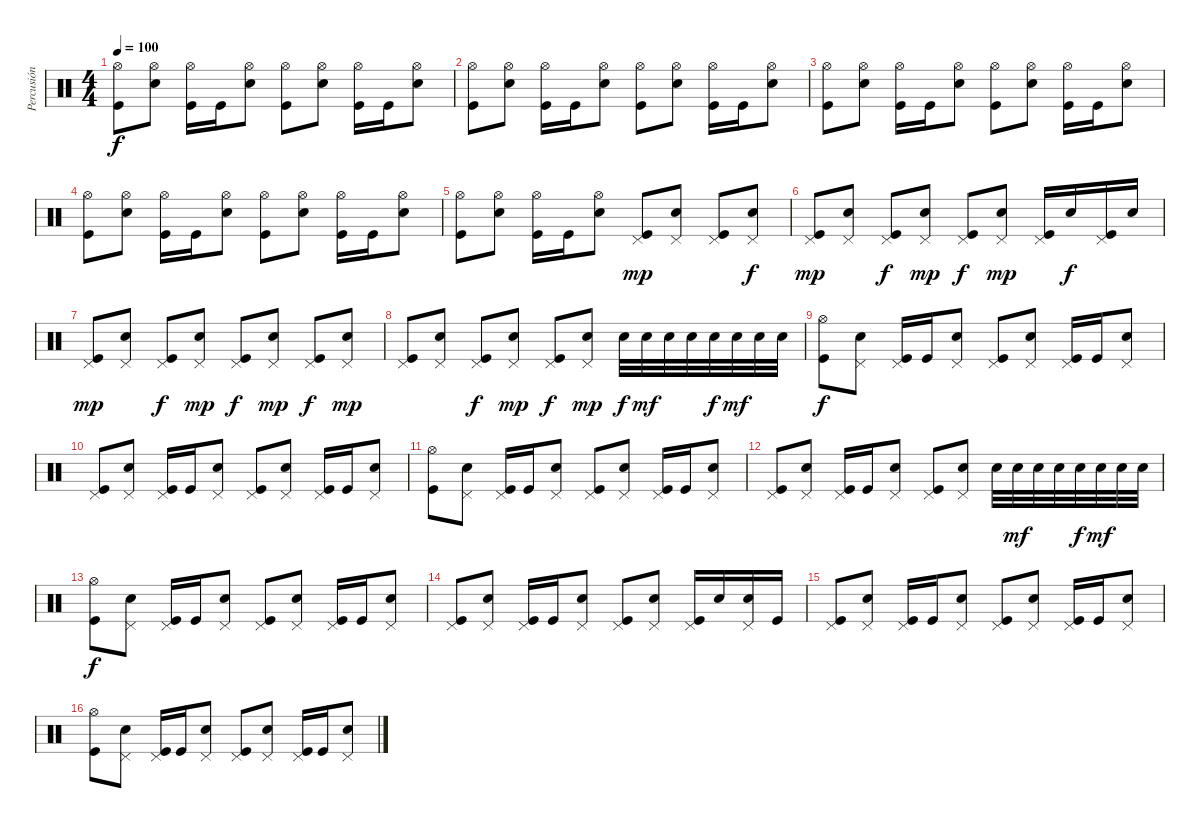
\track ("Percusión" "Percusión") {instrument percussion}
\staff {score}
\articulation defaults
\ts (4 4)
\tempo 100
\clef neutral
\ks c
("Kick (hit)" "Hi-Hat (open)").8{dy f} ("Snare (hit) 2" "Hi-Hat (open)").8 ("Kick (hit)" "Hi-Hat (open)").16 "Kick (hit)".16 ("Snare (hit) 2" "Hi-Hat (open)").8 ("Kick (hit)" "Hi-Hat (open)").8 ("Snare (hit) 2" "Hi-Hat (open)").8 ("Kick (hit)" "Hi-Hat (open)").16 "Kick (hit)".16 ("Snare (hit) 2" "Hi-Hat (open)").8 |
("Kick (hit)" "Hi-Hat (open)").8 ("Snare (hit) 2" "Hi-Hat (open)").8 ("Kick (hit)" "Hi-Hat (open)").16 "Kick (hit)".16 ("Snare (hit) 2" "Hi-Hat (open)").8 ("Kick (hit)" "Hi-Hat (open)").8 ("Snare (hit) 2" "Hi-Hat (open)").8 ("Kick (hit)" "Hi-Hat (open)").16 "Kick (hit)".16 ("Snare (hit) 2" "Hi-Hat (open)").8 |
("Kick (hit)" "Hi-Hat (open)").8 ("Snare (hit) 2" "Hi-Hat (open)").8 ("Kick (hit)" "Hi-Hat (open)").16 "Kick (hit)".16 ("Snare (hit) 2" "Hi-Hat (open)").8 ("Kick (hit)" "Hi-Hat (open)").8 ("Snare (hit) 2" "Hi-Hat (open)").8 ("Kick (hit)" "Hi-Hat (open)").16 "Kick (hit)".16 ("Snare (hit) 2" "Hi-Hat (open)").8 |
("Kick (hit)" "Hi-Hat (open)").8 ("Snare (hit) 2" "Hi-Hat (open)").8 ("Kick (hit)" "Hi-Hat (open)").16 "Kick (hit)".16 ("Snare (hit) 2" "Hi-Hat (open)").8 ("Kick (hit)" "Hi-Hat (open)").8 ("Snare (hit) 2" "Hi-Hat (open)").8 ("Kick (hit)" "Hi-Hat (open)").16 "Kick (hit)".16 ("Snare (hit) 2" "Hi-Hat (open)").8 |
("Kick (hit)" "Hi-Hat (open)").8 ("Snare (hit) 2" "Hi-Hat (open)").8 ("Kick (hit)" "Hi-Hat (open)").16 "Kick (hit)".16 ("Snare (hit) 2" "Hi-Hat (open)").8 ("Pedal Hi-Hat (hit)" "Kick (hit)").8{dy mp} ("Pedal Hi-Hat (hit)" "Snare (hit) 2").8 ("Pedal Hi-Hat (hit)" "Kick (hit)").8 ("Pedal Hi-Hat (hit)" "Snare (hit) 2").8{dy f} |
("Pedal Hi-Hat (hit)" "Kick (hit)").8{dy mp} ("Pedal Hi-Hat (hit)" "Snare (hit) 2").8 ("Pedal Hi-Hat (hit)" "Kick (hit)").8{dy f} ("Pedal Hi-Hat (hit)" "Snare (hit) 2").8{dy mp} ("Pedal Hi-Hat (hit)" "Kick (hit)").8{dy f} ("Pedal Hi-Hat (hit)" "Snare (hit) 2").8{dy mp} ("Pedal Hi-Hat (hit)" "Kick (hit)").16 "Snare (hit) 2".16{dy f} ("Pedal Hi-Hat (hit)" "Kick (hit)").16 "Snare (hit) 2".16 |
("Pedal Hi-Hat (hit)" "Kick (hit)").8{dy mp} ("Pedal Hi-Hat (hit)" "Snare (hit) 2").8 ("Pedal Hi-Hat (hit)" "Kick (hit)").8{dy f} ("Pedal Hi-Hat (hit)" "Snare (hit) 2").8{dy mp} ("Pedal Hi-Hat (hit)" "Kick (hit)").8{dy f} ("Pedal Hi-Hat (hit)" "Snare (hit) 2").8{dy mp} ("Pedal Hi-Hat (hit)" "Kick (hit)").8{dy f} ("Pedal Hi-Hat (hit)" "Snare (hit) 2").8{dy mp} |
("Pedal Hi-Hat (hit)" "Kick (hit)").8 ("Pedal Hi-Hat (hit)" "Snare (hit) 2").8 ("Pedal Hi-Hat (hit)" "Kick (hit)").8{dy f} ("Pedal Hi-Hat (hit)" "Snare (hit) 2").8{dy mp} ("Pedal Hi-Hat (hit)" "Kick (hit)").8{dy f} ("Pedal Hi-Hat (hit)" "Snare (hit) 2").8{dy mp} "Snare (hit) 2".32{dy f} "Snare (hit) 2".32{dy mf} "Snare (hit) 2".32 "Snare (hit) 2".32 "Snare (hit) 2".32{dy f} "Snare (hit) 2".32{dy mf} "Snare (hit) 2".32 "Snare (hit) 2".32 |
("Kick (hit)" "Hi-Hat (open)").8{dy f} ("Pedal Hi-Hat (hit)" "Snare (hit) 2").8 ("Pedal Hi-Hat (hit)" "Kick (hit)").16 "Kick (hit)".16 ("Pedal Hi-Hat (hit)" "Snare (hit) 2").8 ("Pedal Hi-Hat (hit)" "Kick (hit)").8 ("Pedal Hi-Hat (hit)" "Snare (hit) 2").8 ("Pedal Hi-Hat (hit)" "Kick (hit)").16 "Kick (hit)".16 ("Pedal Hi-Hat (hit)" "Snare (hit) 2").8 |
("Pedal Hi-Hat (hit)" "Kick (hit)").8 ("Pedal Hi-Hat (hit)" "Snare (hit) 2").8 ("Pedal Hi-Hat (hit)" "Kick (hit)").16 "Kick (hit)".16 ("Pedal Hi-Hat (hit)" "Snare (hit) 2").8 ("Pedal Hi-Hat (hit)" "Kick (hit)").8 ("Pedal Hi-Hat (hit)" "Snare (hit) 2").8 ("Pedal Hi-Hat (hit)" "Kick (hit)").16 "Kick (hit)".16 ("Pedal Hi-Hat (hit)" "Snare (hit) 2").8 |
("Kick (hit)" "Hi-Hat (open)").8 ("Pedal Hi-Hat (hit)" "Snare (hit) 2").8 ("Pedal Hi-Hat (hit)" "Kick (hit)").16 "Kick (hit)".16 ("Pedal Hi-Hat (hit)" "Snare (hit) 2").8 ("Pedal Hi-Hat (hit)" "Kick (hit)").8 ("Pedal Hi-Hat (hit)" "Snare (hit) 2").8 ("Pedal Hi-Hat (hit)" "Kick (hit)").16 "Kick (hit)".16 ("Pedal Hi-Hat (hit)" "Snare (hit) 2").8 |
("Pedal Hi-Hat (hit)" "Kick (hit)").8 ("Pedal Hi-Hat (hit)" "Snare (hit) 2").8 ("Pedal Hi-Hat (hit)" "Kick (hit)").16 "Kick (hit)".16 ("Pedal Hi-Hat (hit)" "Snare (hit) 2").8 ("Pedal Hi-Hat (hit)" "Kick (hit)").8 ("Pedal Hi-Hat (hit)" "Snare (hit) 2").8 "Snare (hit) 2".32 "Snare (hit) 2".32{dy mf} "Snare (hit) 2".32 "Snare (hit) 2".32 "Snare (hit) 2".32{dy f} "Snare (hit) 2".32{dy mf} "Snare (hit) 2".32 "Snare (hit) 2".32 |
("Kick (hit)" "Hi-Hat (open)").8{dy f} ("Pedal Hi-Hat (hit)" "Snare (hit) 2").8 ("Pedal Hi-Hat (hit)" "Kick (hit)").16 "Kick (hit)".16 ("Pedal Hi-Hat (hit)" "Snare (hit) 2").8 ("Pedal Hi-Hat (hit)" "Kick (hit)").8 ("Pedal Hi-Hat (hit)" "Snare (hit) 2").8 ("Pedal Hi-Hat (hit)" "Kick (hit)").16 "Kick (hit)".16 ("Pedal Hi-Hat (hit)" "Snare (hit) 2").8 |
("Pedal Hi-Hat (hit)" "Kick (hit)").8 ("Pedal Hi-Hat (hit)" "Snare (hit) 2").8 ("Pedal Hi-Hat (hit)" "Kick (hit)").16 "Kick (hit)".16 ("Pedal Hi-Hat (hit)" "Snare (hit) 2").8 ("Pedal Hi-Hat (hit)" "Kick (hit)").8 ("Pedal Hi-Hat (hit)" "Snare (hit) 2").8 ("Pedal Hi-Hat (hit)" "Kick (hit)").16 "Snare (hit) 2".16 ("Pedal Hi-Hat (hit)" "Snare (hit) 2").16 "Kick (hit)".16 |
("Pedal Hi-Hat (hit)" "Kick (hit)").8 ("Pedal Hi-Hat (hit)" "Snare (hit) 2").8 ("Pedal Hi-Hat (hit)" "Kick (hit)").16 "Kick (hit)".16 ("Pedal Hi-Hat (hit)" "Snare (hit) 2").8 ("Pedal Hi-Hat (hit)" "Kick (hit)").8 ("Pedal Hi-Hat (hit)" "Snare (hit) 2").8 ("Pedal Hi-Hat (hit)" "Kick (hit)").16 "Kick (hit)".16 ("Pedal Hi-Hat (hit)" "Snare (hit) 2").8 |
("Kick (hit)" "Hi-Hat (open)").8 ("Pedal Hi-Hat (hit)" "Snare (hit) 2").8 ("Pedal Hi-Hat (hit)" "Kick (hit)").16 "Kick (hit)".16 ("Pedal Hi-Hat (hit)" "Snare (hit) 2").8 ("Pedal Hi-Hat (hit)" "Kick (hit)").8 ("Pedal Hi-Hat (hit)" "Snare (hit) 2").8 ("Pedal Hi-Hat (hit)" "Kick (hit)").16 "Kick (hit)".16 ("Pedal Hi-Hat (hit)" "Snare (hit) 2").8
